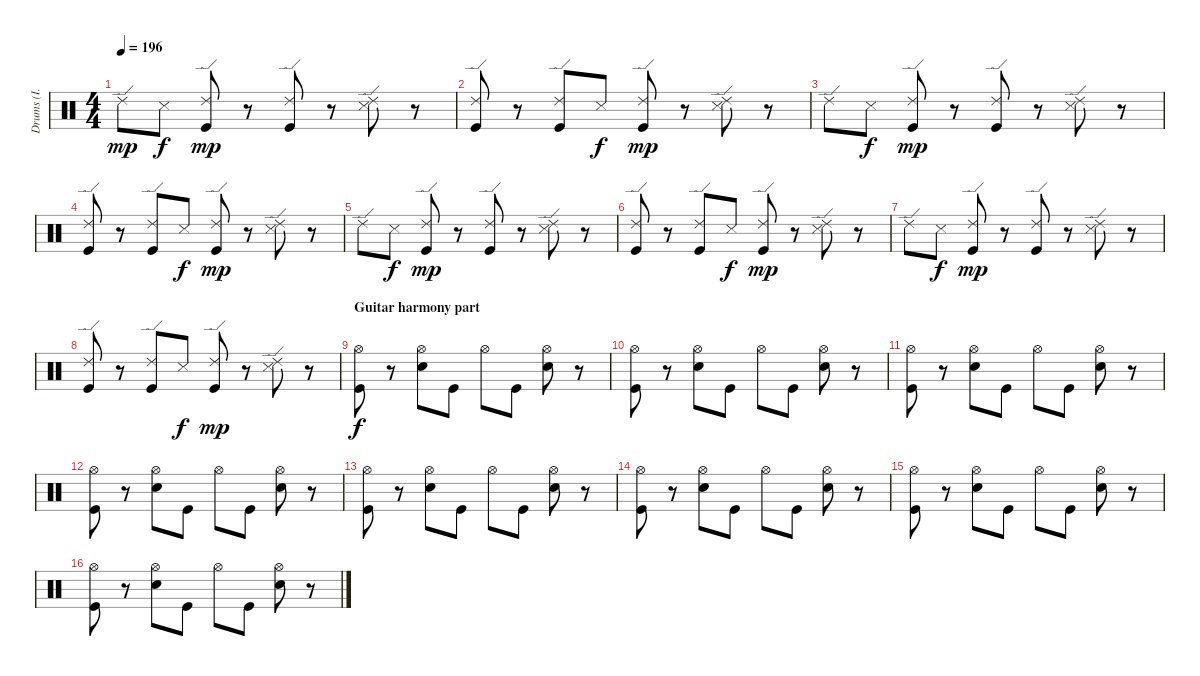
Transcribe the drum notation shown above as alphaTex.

\track ("Drums (I. Paice)" "Drums (I. ") {instrument percussion}
\staff {score}
\articulation defaults
\ts (4 4)
\tempo 196
\clef neutral
\ks c "Ride (edge) 2".8{dy mp} "Snare (side stick) 3".8{dy f}
("Ride (edge) 2" "Kick (hit)").8{dy mp} r.8 ("Ride (edge) 2" "Kick (hit)").8 r.8 ("Ride (edge) 2" "Snare (side stick) 3").8 r.8 |
("Ride (edge) 2" "Kick (hit)").8 r.8 ("Ride (edge) 2" "Kick (hit)").8 "Snare (side stick) 3".8{dy f} ("Ride (edge) 2" "Kick (hit)").8{dy mp} r.8 ("Ride (edge) 2" "Snare (side stick) 3").8 r.8 |
"Ride (edge) 2".8 "Snare (side stick) 3".8{dy f} ("Ride (edge) 2" "Kick (hit)").8{dy mp} r.8 ("Ride (edge) 2" "Kick (hit)").8 r.8 ("Ride (edge) 2" "Snare (side stick) 3").8 r.8 |
("Ride (edge) 2" "Kick (hit)").8 r.8 ("Ride (edge) 2" "Kick (hit)").8 "Snare (side stick) 3".8{dy f} ("Ride (edge) 2" "Kick (hit)").8{dy mp} r.8 ("Ride (edge) 2" "Snare (side stick) 3").8 r.8 |
"Ride (edge) 2".8 "Snare (side stick) 3".8{dy f} ("Ride (edge) 2" "Kick (hit)").8{dy mp} r.8 ("Ride (edge) 2" "Kick (hit)").8 r.8 ("Ride (edge) 2" "Snare (side stick) 3").8 r.8 |
("Ride (edge) 2" "Kick (hit)").8 r.8 ("Ride (edge) 2" "Kick (hit)").8 "Snare (side stick) 3".8{dy f} ("Ride (edge) 2" "Kick (hit)").8{dy mp} r.8 ("Ride (edge) 2" "Snare (side stick) 3").8 r.8 |
"Ride (edge) 2".8 "Snare (side stick) 3".8{dy f} ("Ride (edge) 2" "Kick (hit)").8{dy mp} r.8 ("Ride (edge) 2" "Kick (hit)").8 r.8 ("Ride (edge) 2" "Snare (side stick) 3").8 r.8 |
("Ride (edge) 2" "Kick (hit)").8 r.8 ("Ride (edge) 2" "Kick (hit)").8 "Snare (side stick) 3".8{dy f} ("Ride (edge) 2" "Kick (hit)").8{dy mp} r.8 ("Ride (edge) 2" "Snare (side stick) 3").8 r.8 |
\section ("" "Guitar harmony part")
("Hi-Hat (open)" "Kick (hit)").8{dy f} r.8 ("Hi-Hat (open)" "Snare (hit) 2").8 "Kick (hit)".8 "Hi-Hat (open)".8 "Kick (hit)".8 ("Hi-Hat (open)" "Snare (hit) 2").8 r.8 |
("Hi-Hat (open)" "Kick (hit)").8 r.8 ("Hi-Hat (open)" "Snare (hit) 2").8 "Kick (hit)".8 "Hi-Hat (open)".8 "Kick (hit)".8 ("Hi-Hat (open)" "Snare (hit) 2").8 r.8 |
("Hi-Hat (open)" "Kick (hit)").8 r.8 ("Hi-Hat (open)" "Snare (hit) 2").8 "Kick (hit)".8 "Hi-Hat (open)".8 "Kick (hit)".8 ("Hi-Hat (open)" "Snare (hit) 2").8 r.8 |
("Hi-Hat (open)" "Kick (hit)").8 r.8 ("Hi-Hat (open)" "Snare (hit) 2").8 "Kick (hit)".8 "Hi-Hat (open)".8 "Kick (hit)".8 ("Hi-Hat (open)" "Snare (hit) 2").8 r.8 |
("Hi-Hat (open)" "Kick (hit)").8 r.8 ("Hi-Hat (open)" "Snare (hit) 2").8 "Kick (hit)".8 "Hi-Hat (open)".8 "Kick (hit)".8 ("Hi-Hat (open)" "Snare (hit) 2").8 r.8 |
("Hi-Hat (open)" "Kick (hit)").8 r.8 ("Hi-Hat (open)" "Snare (hit) 2").8 "Kick (hit)".8 "Hi-Hat (open)".8 "Kick (hit)".8 ("Hi-Hat (open)" "Snare (hit) 2").8 r.8 |
("Hi-Hat (open)" "Kick (hit)").8 r.8 ("Hi-Hat (open)" "Snare (hit) 2").8 "Kick (hit)".8 "Hi-Hat (open)".8 "Kick (hit)".8 ("Hi-Hat (open)" "Snare (hit) 2").8 r.8 |
("Hi-Hat (open)" "Kick (hit)").8 r.8 ("Hi-Hat (open)" "Snare (hit) 2").8 "Kick (hit)".8 "Hi-Hat (open)".8 "Kick (hit)".8 ("Hi-Hat (open)" "Snare (hit) 2").8 r.8
